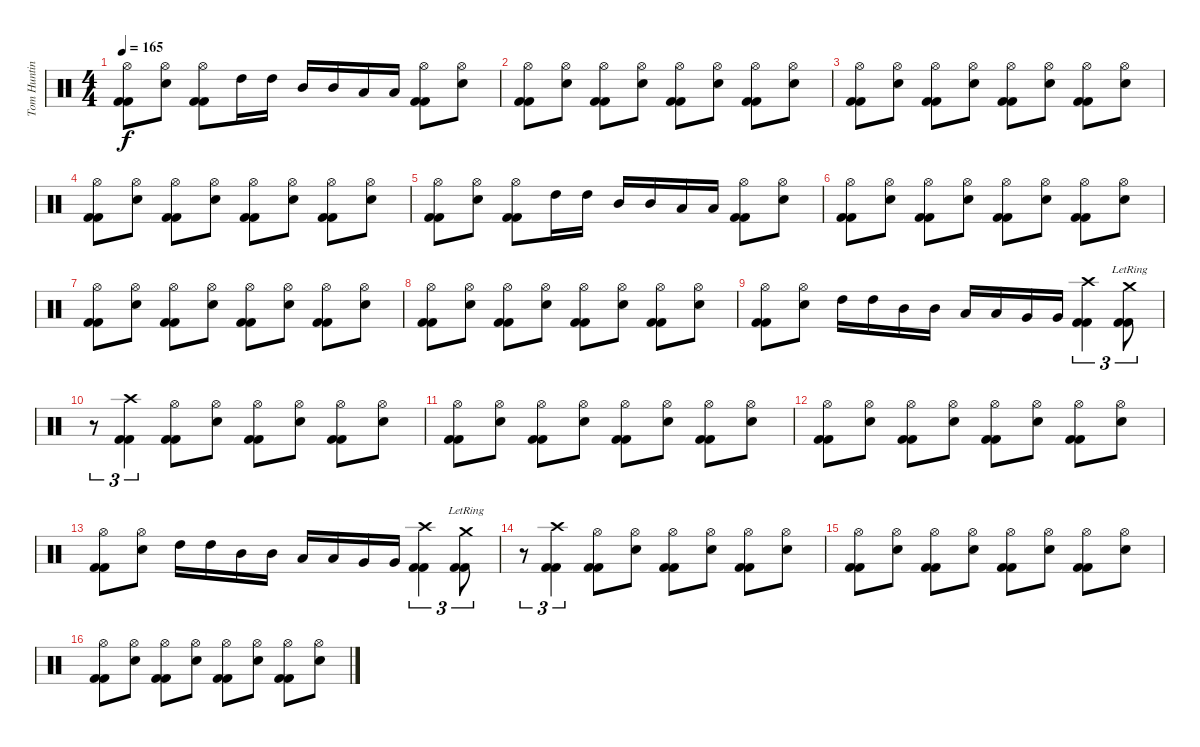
\track ("Tom Hunting" "Tom Huntin") {instrument percussion}
\staff {score}
\articulation defaults
\ts (4 4)
\tempo 165
\clef neutral
\ks c
("Kick (hit) 2" "Kick (hit) 2" "Hi-Hat (open)").8{dy f} ("Electric Snare (hit)" "Hi-Hat (open)").8 ("Kick (hit) 2" "Kick (hit) 2" "Hi-Hat (open)").8 "High Tom (hit)".16 "High Tom (hit)".16 "Mid Tom (hit)".16 "Mid Tom (hit)".16 "Low Tom (hit)".16 "Low Tom (hit)".16 ("Kick (hit) 2" "Kick (hit) 2" "Hi-Hat (open)").8 ("Electric Snare (hit)" "Hi-Hat (open)").8 |
("Kick (hit) 2" "Kick (hit) 2" "Hi-Hat (open)").8 ("Electric Snare (hit)" "Hi-Hat (open)").8 ("Kick (hit) 2" "Kick (hit) 2" "Hi-Hat (open)").8 ("Electric Snare (hit)" "Hi-Hat (open)").8 ("Kick (hit) 2" "Kick (hit) 2" "Hi-Hat (open)").8 ("Electric Snare (hit)" "Hi-Hat (open)").8 ("Kick (hit) 2" "Kick (hit) 2" "Hi-Hat (open)").8 ("Electric Snare (hit)" "Hi-Hat (open)").8 |
("Kick (hit) 2" "Kick (hit) 2" "Hi-Hat (open)").8 ("Electric Snare (hit)" "Hi-Hat (open)").8 ("Kick (hit) 2" "Kick (hit) 2" "Hi-Hat (open)").8 ("Electric Snare (hit)" "Hi-Hat (open)").8 ("Kick (hit) 2" "Kick (hit) 2" "Hi-Hat (open)").8 ("Electric Snare (hit)" "Hi-Hat (open)").8 ("Kick (hit) 2" "Kick (hit) 2" "Hi-Hat (open)").8 ("Electric Snare (hit)" "Hi-Hat (open)").8 |
("Kick (hit) 2" "Kick (hit) 2" "Hi-Hat (open)").8 ("Electric Snare (hit)" "Hi-Hat (open)").8 ("Kick (hit) 2" "Kick (hit) 2" "Hi-Hat (open)").8 ("Electric Snare (hit)" "Hi-Hat (open)").8 ("Kick (hit) 2" "Kick (hit) 2" "Hi-Hat (open)").8 ("Electric Snare (hit)" "Hi-Hat (open)").8 ("Kick (hit) 2" "Kick (hit) 2" "Hi-Hat (open)").8 ("Electric Snare (hit)" "Hi-Hat (open)").8 |
("Kick (hit) 2" "Kick (hit) 2" "Hi-Hat (open)").8 ("Electric Snare (hit)" "Hi-Hat (open)").8 ("Kick (hit) 2" "Kick (hit) 2" "Hi-Hat (open)").8 "High Tom (hit)".16 "High Tom (hit)".16 "Mid Tom (hit)".16 "Mid Tom (hit)".16 "Low Tom (hit)".16 "Low Tom (hit)".16 ("Kick (hit) 2" "Kick (hit) 2" "Hi-Hat (open)").8 ("Electric Snare (hit)" "Hi-Hat (open)").8 |
("Kick (hit) 2" "Kick (hit) 2" "Hi-Hat (open)").8 ("Electric Snare (hit)" "Hi-Hat (open)").8 ("Kick (hit) 2" "Kick (hit) 2" "Hi-Hat (open)").8 ("Electric Snare (hit)" "Hi-Hat (open)").8 ("Kick (hit) 2" "Kick (hit) 2" "Hi-Hat (open)").8 ("Electric Snare (hit)" "Hi-Hat (open)").8 ("Kick (hit) 2" "Kick (hit) 2" "Hi-Hat (open)").8 ("Electric Snare (hit)" "Hi-Hat (open)").8 |
("Kick (hit) 2" "Kick (hit) 2" "Hi-Hat (open)").8 ("Electric Snare (hit)" "Hi-Hat (open)").8 ("Kick (hit) 2" "Kick (hit) 2" "Hi-Hat (open)").8 ("Electric Snare (hit)" "Hi-Hat (open)").8 ("Kick (hit) 2" "Kick (hit) 2" "Hi-Hat (open)").8 ("Electric Snare (hit)" "Hi-Hat (open)").8 ("Kick (hit) 2" "Kick (hit) 2" "Hi-Hat (open)").8 ("Electric Snare (hit)" "Hi-Hat (open)").8 |
("Kick (hit) 2" "Kick (hit) 2" "Hi-Hat (open)").8 ("Electric Snare (hit)" "Hi-Hat (open)").8 ("Kick (hit) 2" "Kick (hit) 2" "Hi-Hat (open)").8 ("Electric Snare (hit)" "Hi-Hat (open)").8 ("Kick (hit) 2" "Kick (hit) 2" "Hi-Hat (open)").8 ("Electric Snare (hit)" "Hi-Hat (open)").8 ("Kick (hit) 2" "Kick (hit) 2" "Hi-Hat (open)").8 ("Electric Snare (hit)" "Hi-Hat (open)").8 |
("Kick (hit) 2" "Kick (hit) 2" "Hi-Hat (open)").8 ("Electric Snare (hit)" "Hi-Hat (open)").8 "High Tom (hit)".16 "High Tom (hit)".16 "Mid Tom (hit)".16 "Mid Tom (hit)".16 "Low Tom (hit)".16 "Low Tom (hit)".16 "Very Low Tom (hit)".16 "Very Low Tom (hit)".16 ("Kick (hit) 2" "Kick (hit) 2" "Crash high (hit)").4{tu (3 2)} ("Kick (hit) 2" "Kick (hit) 2" "Crash medium (hit)"{lr}).8{tu (3 2)} |
r.8{tu (3 2)} ("Kick (hit) 2" "Kick (hit) 2" "Crash high (hit)").4{tu (3 2)} ("Kick (hit) 2" "Kick (hit) 2" "Hi-Hat (open)").8 ("Electric Snare (hit)" "Hi-Hat (open)").8 ("Kick (hit) 2" "Kick (hit) 2" "Hi-Hat (open)").8 ("Electric Snare (hit)" "Hi-Hat (open)").8 ("Kick (hit) 2" "Kick (hit) 2" "Hi-Hat (open)").8 ("Electric Snare (hit)" "Hi-Hat (open)").8 |
("Kick (hit) 2" "Kick (hit) 2" "Hi-Hat (open)").8 ("Electric Snare (hit)" "Hi-Hat (open)").8 ("Kick (hit) 2" "Kick (hit) 2" "Hi-Hat (open)").8 ("Electric Snare (hit)" "Hi-Hat (open)").8 ("Kick (hit) 2" "Kick (hit) 2" "Hi-Hat (open)").8 ("Electric Snare (hit)" "Hi-Hat (open)").8 ("Kick (hit) 2" "Kick (hit) 2" "Hi-Hat (open)").8 ("Electric Snare (hit)" "Hi-Hat (open)").8 |
("Kick (hit) 2" "Kick (hit) 2" "Hi-Hat (open)").8 ("Electric Snare (hit)" "Hi-Hat (open)").8 ("Kick (hit) 2" "Kick (hit) 2" "Hi-Hat (open)").8 ("Electric Snare (hit)" "Hi-Hat (open)").8 ("Kick (hit) 2" "Kick (hit) 2" "Hi-Hat (open)").8 ("Electric Snare (hit)" "Hi-Hat (open)").8 ("Kick (hit) 2" "Kick (hit) 2" "Hi-Hat (open)").8 ("Electric Snare (hit)" "Hi-Hat (open)").8 |
("Kick (hit) 2" "Kick (hit) 2" "Hi-Hat (open)").8 ("Electric Snare (hit)" "Hi-Hat (open)").8 "High Tom (hit)".16 "High Tom (hit)".16 "Mid Tom (hit)".16 "Mid Tom (hit)".16 "Low Tom (hit)".16 "Low Tom (hit)".16 "Very Low Tom (hit)".16 "Very Low Tom (hit)".16 ("Kick (hit) 2" "Kick (hit) 2" "Crash high (hit)").4{tu (3 2)} ("Kick (hit) 2" "Kick (hit) 2" "Crash medium (hit)"{lr}).8{tu (3 2)} |
r.8{tu (3 2)} ("Kick (hit) 2" "Kick (hit) 2" "Crash high (hit)").4{tu (3 2)} ("Kick (hit) 2" "Kick (hit) 2" "Hi-Hat (open)").8 ("Electric Snare (hit)" "Hi-Hat (open)").8 ("Kick (hit) 2" "Kick (hit) 2" "Hi-Hat (open)").8 ("Electric Snare (hit)" "Hi-Hat (open)").8 ("Kick (hit) 2" "Kick (hit) 2" "Hi-Hat (open)").8 ("Electric Snare (hit)" "Hi-Hat (open)").8 |
("Kick (hit) 2" "Kick (hit) 2" "Hi-Hat (open)").8 ("Electric Snare (hit)" "Hi-Hat (open)").8 ("Kick (hit) 2" "Kick (hit) 2" "Hi-Hat (open)").8 ("Electric Snare (hit)" "Hi-Hat (open)").8 ("Kick (hit) 2" "Kick (hit) 2" "Hi-Hat (open)").8 ("Electric Snare (hit)" "Hi-Hat (open)").8 ("Kick (hit) 2" "Kick (hit) 2" "Hi-Hat (open)").8 ("Electric Snare (hit)" "Hi-Hat (open)").8 |
("Kick (hit) 2" "Kick (hit) 2" "Hi-Hat (open)").8 ("Electric Snare (hit)" "Hi-Hat (open)").8 ("Kick (hit) 2" "Kick (hit) 2" "Hi-Hat (open)").8 ("Electric Snare (hit)" "Hi-Hat (open)").8 ("Kick (hit) 2" "Kick (hit) 2" "Hi-Hat (open)").8 ("Electric Snare (hit)" "Hi-Hat (open)").8 ("Kick (hit) 2" "Kick (hit) 2" "Hi-Hat (open)").8 ("Electric Snare (hit)" "Hi-Hat (open)").8
